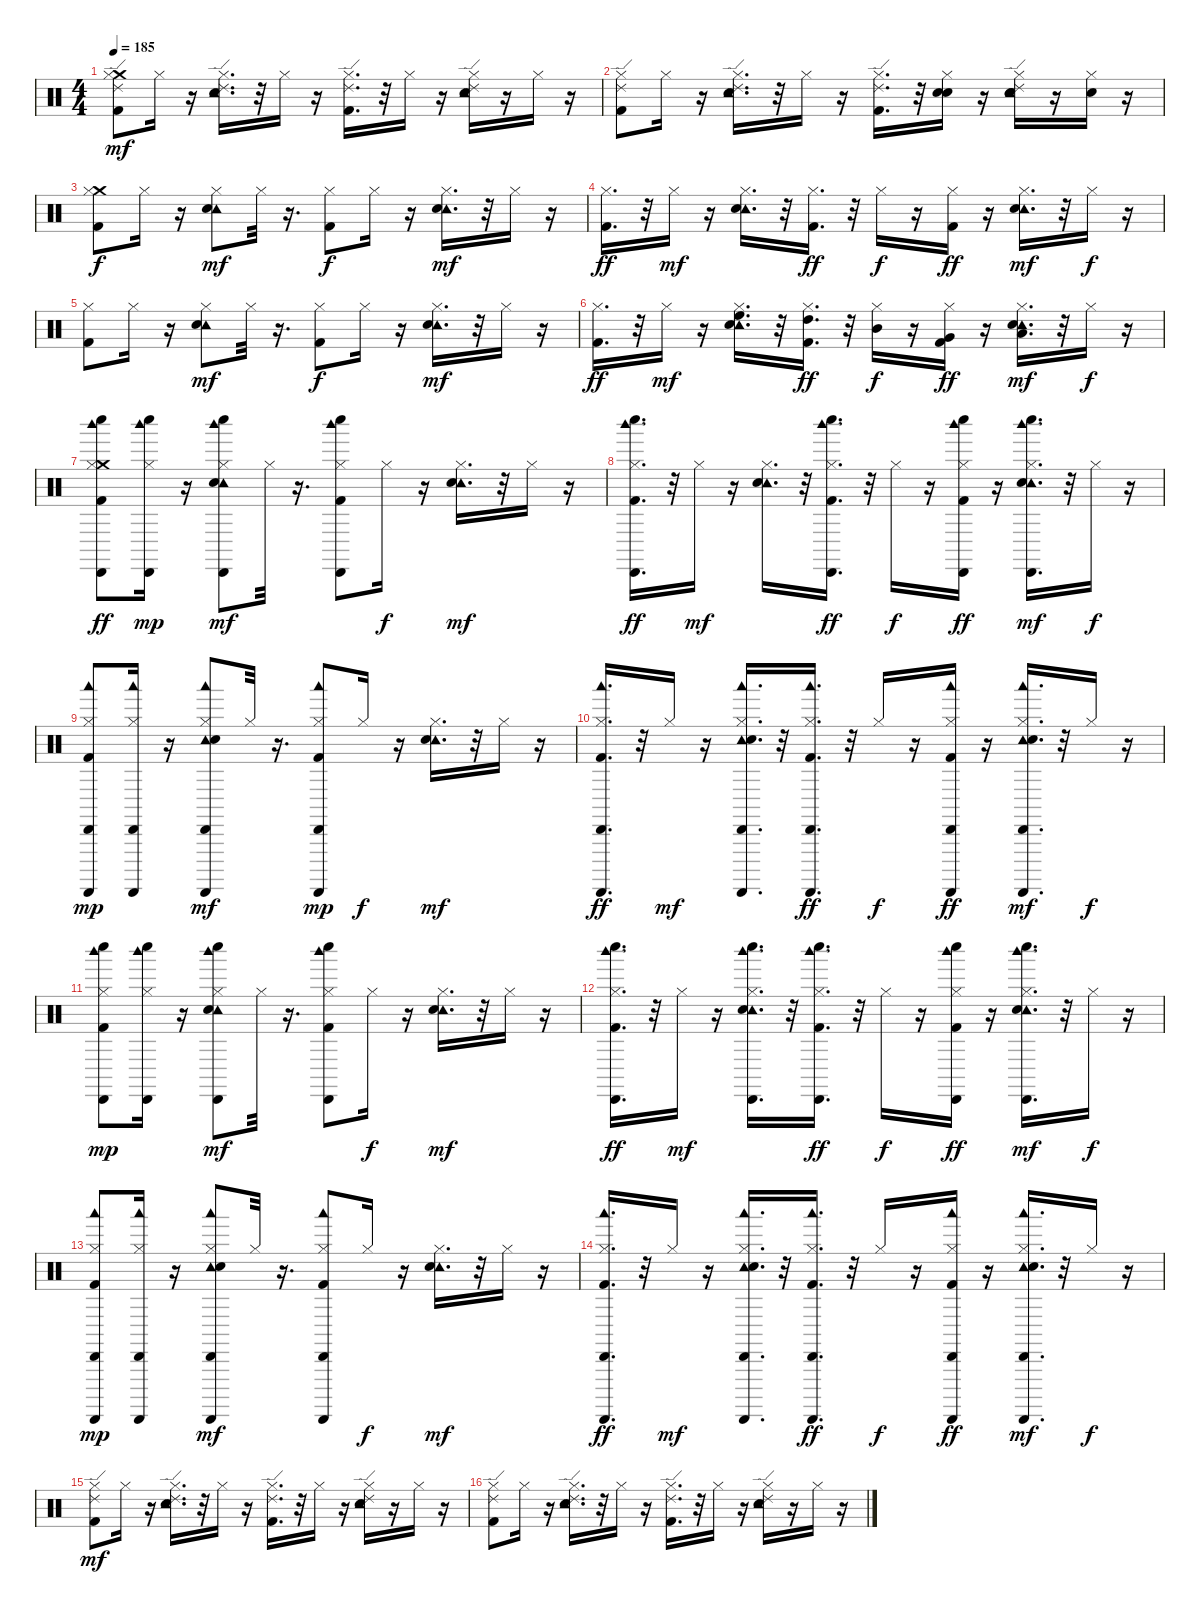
\track "" {instrument percussion}
\staff {score}
\articulation defaults
\ts (4 4)
\tempo 185
\clef neutral
\ks c
("Crash medium (hit)" "Ride (edge) 2" "Hi-Hat (closed)" "Kick (hit) 2").8{dy mf} "Hi-Hat (closed)".16 r.16 ("Ride (edge) 2" "Hi-Hat (closed)" "Tambourine (hit)" "Snare (hit) 2").16{d} r.32 "Hi-Hat (closed)".16 r.16 ("Ride (edge) 2" "Hi-Hat (closed)" "Kick (hit) 2").16{d} r.32 "Hi-Hat (closed)".16 r.16 ("Ride (edge) 2" "Hi-Hat (closed)" "Tambourine (hit)" "Snare (hit) 2").16 r.16 "Hi-Hat (closed)".16 r.16 |
("Ride (edge) 2" "Hi-Hat (closed)" "Kick (hit) 2").8 "Hi-Hat (closed)".16 r.16 ("Ride (edge) 2" "Hi-Hat (closed)" "Tambourine (hit)" "Snare (hit) 2").16{d} r.32 "Hi-Hat (closed)".16 r.16 ("Ride (edge) 2" "Hi-Hat (closed)" "Kick (hit) 2").16{d} r.32 ("Snare (hit) 2" "Electric Snare (hit)" "Hi-Hat (closed)").16 r.16 ("Snare (hit) 2" "Ride (edge) 2" "Hi-Hat (closed)" "Tambourine (hit)" "Snare (hit) 2").16 r.16 ("Snare (hit) 2" "Hi-Hat (closed)").16 r.16 |
("Crash medium (hit)" "Hi-Hat (closed)" "Kick (hit) 2").8{dy f} "Hi-Hat (closed)".16 r.16 ("Tambourine (hit)" "Hi-Hat (closed)" "Snare (hit) 2").8{dy mf} "Hi-Hat (closed)".32 r.16{d} ("Hi-Hat (closed)" "Kick (hit) 2").8{dy f} "Hi-Hat (closed)".16 r.16 ("Tambourine (hit)" "Hi-Hat (closed)" "Snare (hit) 2").16{d dy mf} r.32 "Hi-Hat (closed)".16 r.16 |
("Hi-Hat (closed)" "Kick (hit) 2").16{d dy ff} r.32 "Hi-Hat (closed)".16{dy mf} r.16 ("Tambourine (hit)" "Hi-Hat (closed)" "Snare (hit) 2").16{d} r.32 ("Hi-Hat (closed)" "Kick (hit) 2").16{d dy ff} r.32 "Hi-Hat (closed)".16{dy f} r.16 ("Hi-Hat (closed)" "Kick (hit) 2").16{dy ff} r.16 ("Tambourine (hit)" "Hi-Hat (closed)" "Snare (hit) 2").16{d dy mf} r.32 "Hi-Hat (closed)".16{dy f} r.16 |
("Hi-Hat (closed)" "Kick (hit) 2").8 "Hi-Hat (closed)".16 r.16 ("Tambourine (hit)" "Hi-Hat (closed)" "Snare (hit) 2").8{dy mf} "Hi-Hat (closed)".32 r.16{d} ("Hi-Hat (closed)" "Kick (hit) 2").8{dy f} "Hi-Hat (closed)".16 r.16 ("Tambourine (hit)" "Hi-Hat (closed)" "Snare (hit) 2").16{d dy mf} r.32 "Hi-Hat (closed)".16 r.16 |
("Hi-Hat (closed)" "Kick (hit) 2").16{d dy ff} r.32 "Hi-Hat (closed)".16{dy mf} r.16 ("High Floor Tom (hit)" "Tambourine (hit)" "Hi-Hat (closed)" "Snare (hit) 2").16{d} r.32 ("High Tom (hit)" "Hi-Hat (closed)" "Kick (hit) 2").16{d dy ff} r.32 ("Mid Tom (hit)" "Hi-Hat (closed)").16{dy f} r.16 ("Very Low Tom (hit)" "Hi-Hat (closed)" "Kick (hit) 2").16{dy ff} r.16 ("Low Floor Tom (hit)" "Tambourine (hit)" "Hi-Hat (closed)" "Snare (hit) 2").16{d dy mf} r.32 "Hi-Hat (closed)".16{dy f} r.16 |
("Whistle low (hit)" "Cabasa (hit)" "Woodblock high (hit)" "Crash medium (hit)" "Hi-Hat (closed)" "Kick (hit) 2").8{dy ff} ("Cabasa (hit)" "Whistle low (hit)" "Woodblock high (hit)" "Hi-Hat (closed)").16{dy mp} r.16 ("Cabasa (hit)" "Whistle low (hit)" "Woodblock high (hit)" "Tambourine (hit)" "Hi-Hat (closed)" "Snare (hit) 2").8{dy mf} "Hi-Hat (closed)".32 r.16{d} ("Cabasa (hit)" "Whistle low (hit)" "Woodblock high (hit)" "Hi-Hat (closed)" "Kick (hit) 2").8 "Hi-Hat (closed)".16{dy f} r.16 ("Tambourine (hit)" "Hi-Hat (closed)" "Snare (hit) 2").16{d dy mf} r.32 "Hi-Hat (closed)".16 r.16 |
("Cabasa (hit)" "Whistle low (hit)" "Woodblock high (hit)" "Hi-Hat (closed)" "Kick (hit) 2").16{d dy ff} r.32 "Hi-Hat (closed)".16{dy mf} r.16 ("Tambourine (hit)" "Hi-Hat (closed)" "Snare (hit) 2").16{d} r.32 ("Whistle low (hit)" "Cabasa (hit)" "Woodblock high (hit)" "Hi-Hat (closed)" "Kick (hit) 2").16{d dy ff} r.32 "Hi-Hat (closed)".16{dy f} r.16 ("Cabasa (hit)" "Whistle low (hit)" "Woodblock high (hit)" "Hi-Hat (closed)" "Kick (hit) 2").16{dy ff} r.16 ("Cabasa (hit)" "Whistle low (hit)" "Woodblock high (hit)" "Tambourine (hit)" "Hi-Hat (closed)" "Snare (hit) 2").16{d dy mf} r.32 "Hi-Hat (closed)".16{dy f} r.16 |
("Cabasa (hit)" "Woodblock low (hit)" "Guiro (scrap-return)" "Hi-Hat (closed)" "Kick (hit) 2").8{dy mp} ("Cabasa (hit)" "Guiro (scrap-return)" "Woodblock low (hit)" "Hi-Hat (closed)").16 r.16 ("Cabasa (hit)" "Woodblock low (hit)" "Guiro (scrap-return)" "Tambourine (hit)" "Hi-Hat (closed)" "Snare (hit) 2").8{dy mf} "Hi-Hat (closed)".32 r.16{d} ("Woodblock low (hit)" "Cabasa (hit)" "Guiro (scrap-return)" "Hi-Hat (closed)" "Kick (hit) 2").8{dy mp} "Hi-Hat (closed)".16{dy f} r.16 ("Tambourine (hit)" "Hi-Hat (closed)" "Snare (hit) 2").16{d dy mf} r.32 "Hi-Hat (closed)".16 r.16 |
("Cabasa (hit)" "Guiro (scrap-return)" "Woodblock low (hit)" "Hi-Hat (closed)" "Kick (hit) 2").16{d dy ff} r.32 "Hi-Hat (closed)".16{dy mf} r.16 ("Guiro (scrap-return)" "Cabasa (hit)" "Woodblock low (hit)" "Tambourine (hit)" "Hi-Hat (closed)" "Snare (hit) 2").16{d} r.32 ("Cabasa (hit)" "Woodblock low (hit)" "Guiro (scrap-return)" "Hi-Hat (closed)" "Kick (hit) 2").16{d dy ff} r.32 "Hi-Hat (closed)".16{dy f} r.16 ("Cabasa (hit)" "Woodblock low (hit)" "Guiro (scrap-return)" "Hi-Hat (closed)" "Kick (hit) 2").16{dy ff} r.16 ("Woodblock low (hit)" "Cabasa (hit)" "Guiro (scrap-return)" "Tambourine (hit)" "Hi-Hat (closed)" "Snare (hit) 2").16{d dy mf} r.32 "Hi-Hat (closed)".16{dy f} r.16 |
("Whistle low (hit)" "Woodblock high (hit)" "Cabasa (hit)" "Hi-Hat (closed)" "Kick (hit) 2").8{dy mp} ("Cabasa (hit)" "Woodblock high (hit)" "Whistle low (hit)" "Hi-Hat (closed)").16 r.16 ("Whistle low (hit)" "Cabasa (hit)" "Woodblock high (hit)" "Tambourine (hit)" "Hi-Hat (closed)" "Snare (hit) 2").8{dy mf} "Hi-Hat (closed)".32 r.16{d} ("Cabasa (hit)" "Woodblock high (hit)" "Whistle low (hit)" "Hi-Hat (closed)" "Kick (hit) 2").8 "Hi-Hat (closed)".16{dy f} r.16 ("Tambourine (hit)" "Hi-Hat (closed)" "Snare (hit) 2").16{d dy mf} r.32 "Hi-Hat (closed)".16 r.16 |
("Cabasa (hit)" "Whistle low (hit)" "Woodblock high (hit)" "Hi-Hat (closed)" "Kick (hit) 2").16{d dy ff} r.32 "Hi-Hat (closed)".16{dy mf} r.16 ("Whistle low (hit)" "Cabasa (hit)" "Woodblock high (hit)" "Tambourine (hit)" "Hi-Hat (closed)" "Snare (hit) 2").16{d} r.32 ("Whistle low (hit)" "Cabasa (hit)" "Woodblock high (hit)" "Hi-Hat (closed)" "Kick (hit) 2").16{d dy ff} r.32 "Hi-Hat (closed)".16{dy f} r.16 ("Cabasa (hit)" "Whistle low (hit)" "Woodblock high (hit)" "Hi-Hat (closed)" "Kick (hit) 2").16{dy ff} r.16 ("Cabasa (hit)" "Whistle low (hit)" "Woodblock high (hit)" "Tambourine (hit)" "Hi-Hat (closed)" "Snare (hit) 2").16{d dy mf} r.32 "Hi-Hat (closed)".16{dy f} r.16 |
("Cabasa (hit)" "Woodblock low (hit)" "Guiro (scrap-return)" "Hi-Hat (closed)" "Kick (hit) 2").8{dy mp} ("Woodblock low (hit)" "Cabasa (hit)" "Guiro (scrap-return)" "Hi-Hat (closed)").16 r.16 ("Woodblock low (hit)" "Guiro (scrap-return)" "Cabasa (hit)" "Tambourine (hit)" "Hi-Hat (closed)" "Snare (hit) 2").8{dy mf} "Hi-Hat (closed)".32 r.16{d} ("Woodblock low (hit)" "Guiro (scrap-return)" "Cabasa (hit)" "Hi-Hat (closed)" "Kick (hit) 2").8 "Hi-Hat (closed)".16{dy f} r.16 ("Tambourine (hit)" "Hi-Hat (closed)" "Snare (hit) 2").16{d dy mf} r.32 "Hi-Hat (closed)".16 r.16 |
("Cabasa (hit)" "Woodblock low (hit)" "Guiro (scrap-return)" "Hi-Hat (closed)" "Kick (hit) 2").16{d dy ff} r.32 "Hi-Hat (closed)".16{dy mf} r.16 ("Cabasa (hit)" "Woodblock low (hit)" "Guiro (scrap-return)" "Tambourine (hit)" "Hi-Hat (closed)" "Snare (hit) 2").16{d} r.32 ("Cabasa (hit)" "Woodblock low (hit)" "Guiro (scrap-return)" "Hi-Hat (closed)" "Kick (hit) 2").16{d dy ff} r.32 "Hi-Hat (closed)".16{dy f} r.16 ("Cabasa (hit)" "Woodblock low (hit)" "Guiro (scrap-return)" "Hi-Hat (closed)" "Kick (hit) 2").16{dy ff} r.16 ("Woodblock low (hit)" "Cabasa (hit)" "Guiro (scrap-return)" "Tambourine (hit)" "Hi-Hat (closed)" "Snare (hit) 2").16{d dy mf} r.32 "Hi-Hat (closed)".16{dy f} r.16 |
("Ride (edge) 2" "Hi-Hat (closed)" "Kick (hit) 2").8{dy mf} "Hi-Hat (closed)".16 r.16 ("Ride (edge) 2" "Hi-Hat (closed)" "Tambourine (hit)" "Snare (hit) 2").16{d} r.32 "Hi-Hat (closed)".16 r.16 ("Ride (edge) 2" "Hi-Hat (closed)" "Kick (hit) 2").16{d} r.32 "Hi-Hat (closed)".16 r.16 ("Ride (edge) 2" "Hi-Hat (closed)" "Tambourine (hit)" "Snare (hit) 2").16 r.16 "Hi-Hat (closed)".16 r.16 |
("Ride (edge) 2" "Hi-Hat (closed)" "Kick (hit) 2").8 "Hi-Hat (closed)".16 r.16 ("Ride (edge) 2" "Hi-Hat (closed)" "Tambourine (hit)" "Snare (hit) 2").16{d} r.32 "Hi-Hat (closed)".16 r.16 ("Ride (edge) 2" "Hi-Hat (closed)" "Kick (hit) 2").16{d} r.32 "Hi-Hat (closed)".16 r.16 ("Ride (edge) 2" "Hi-Hat (closed)" "Tambourine (hit)" "Snare (hit) 2").16 r.16 "Hi-Hat (closed)".16 r.16
